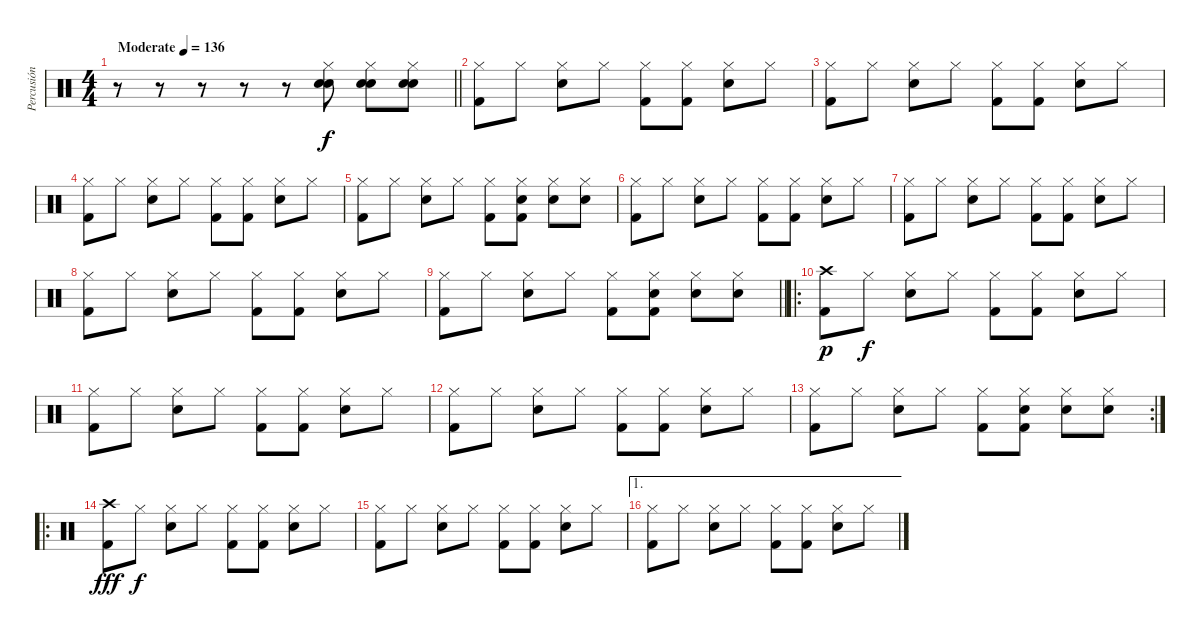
\track ("Percusión" "Percusión") {instrument percussion}
\staff {score}
\articulation defaults
\ts (4 4)
\tempo (136 "Moderate")
\clef neutral
\barLineRight lightlight
\ks c
r.8{dy f} r.8 r.8 r.8 r.8 ("Hi-Hat (closed)" "Electric Snare (hit)" "Snare (hit) 2").8 ("Hi-Hat (closed)" "Electric Snare (hit)" "Snare (hit) 2").8 ("Hi-Hat (closed)" "Electric Snare (hit)" "Snare (hit) 2").8 |
("Hi-Hat (closed)" "Kick (hit) 2").8 "Hi-Hat (closed)".8 ("Hi-Hat (closed)" "Snare (hit) 2").8 "Hi-Hat (closed)".8 ("Hi-Hat (closed)" "Kick (hit) 2").8 ("Hi-Hat (closed)" "Kick (hit) 2").8 ("Hi-Hat (closed)" "Snare (hit) 2").8 "Hi-Hat (closed)".8 |
("Hi-Hat (closed)" "Kick (hit) 2").8 "Hi-Hat (closed)".8 ("Hi-Hat (closed)" "Snare (hit) 2").8 "Hi-Hat (closed)".8 ("Hi-Hat (closed)" "Kick (hit) 2").8 ("Hi-Hat (closed)" "Kick (hit) 2").8 ("Hi-Hat (closed)" "Snare (hit) 2").8 "Hi-Hat (closed)".8 |
("Hi-Hat (closed)" "Kick (hit) 2").8 "Hi-Hat (closed)".8 ("Hi-Hat (closed)" "Snare (hit) 2").8 "Hi-Hat (closed)".8 ("Hi-Hat (closed)" "Kick (hit) 2").8 ("Hi-Hat (closed)" "Kick (hit) 2").8 ("Hi-Hat (closed)" "Snare (hit) 2").8 "Hi-Hat (closed)".8 |
("Hi-Hat (closed)" "Kick (hit) 2").8 "Hi-Hat (closed)".8 ("Hi-Hat (closed)" "Snare (hit) 2").8 "Hi-Hat (closed)".8 ("Hi-Hat (closed)" "Kick (hit) 2").8 ("Hi-Hat (closed)" "Snare (hit) 2" "Kick (hit) 2").8 ("Hi-Hat (closed)" "Snare (hit) 2").8 ("Hi-Hat (closed)" "Snare (hit) 2").8 |
("Hi-Hat (closed)" "Kick (hit) 2").8 "Hi-Hat (closed)".8 ("Hi-Hat (closed)" "Snare (hit) 2").8 "Hi-Hat (closed)".8 ("Hi-Hat (closed)" "Kick (hit) 2").8 ("Hi-Hat (closed)" "Kick (hit) 2").8 ("Hi-Hat (closed)" "Snare (hit) 2").8 "Hi-Hat (closed)".8 |
("Hi-Hat (closed)" "Kick (hit) 2").8 "Hi-Hat (closed)".8 ("Hi-Hat (closed)" "Snare (hit) 2").8 "Hi-Hat (closed)".8 ("Hi-Hat (closed)" "Kick (hit) 2").8 ("Hi-Hat (closed)" "Kick (hit) 2").8 ("Hi-Hat (closed)" "Snare (hit) 2").8 "Hi-Hat (closed)".8 |
("Hi-Hat (closed)" "Kick (hit) 2").8 "Hi-Hat (closed)".8 ("Hi-Hat (closed)" "Snare (hit) 2").8 "Hi-Hat (closed)".8 ("Hi-Hat (closed)" "Kick (hit) 2").8 ("Hi-Hat (closed)" "Kick (hit) 2").8 ("Hi-Hat (closed)" "Snare (hit) 2").8 "Hi-Hat (closed)".8 |
\barLineRight lightlight
("Hi-Hat (closed)" "Kick (hit) 2").8 "Hi-Hat (closed)".8 ("Hi-Hat (closed)" "Snare (hit) 2").8 "Hi-Hat (closed)".8 ("Hi-Hat (closed)" "Kick (hit) 2").8 ("Hi-Hat (closed)" "Snare (hit) 2" "Kick (hit) 2").8 ("Hi-Hat (closed)" "Snare (hit) 2").8 ("Hi-Hat (closed)" "Snare (hit) 2").8 |
\ro
("Crash high (hit)" "Kick (hit) 2").8{dy p} "Hi-Hat (closed)".8{dy f} ("Hi-Hat (closed)" "Snare (hit) 2").8 "Hi-Hat (closed)".8 ("Hi-Hat (closed)" "Kick (hit) 2").8 ("Hi-Hat (closed)" "Kick (hit) 2").8 ("Hi-Hat (closed)" "Snare (hit) 2").8 "Hi-Hat (closed)".8 |
("Hi-Hat (closed)" "Kick (hit) 2").8 "Hi-Hat (closed)".8 ("Hi-Hat (closed)" "Snare (hit) 2").8 "Hi-Hat (closed)".8 ("Hi-Hat (closed)" "Kick (hit) 2").8 ("Hi-Hat (closed)" "Kick (hit) 2").8 ("Hi-Hat (closed)" "Snare (hit) 2").8 "Hi-Hat (closed)".8 |
("Hi-Hat (closed)" "Kick (hit) 2").8 "Hi-Hat (closed)".8 ("Hi-Hat (closed)" "Snare (hit) 2").8 "Hi-Hat (closed)".8 ("Hi-Hat (closed)" "Kick (hit) 2").8 ("Hi-Hat (closed)" "Kick (hit) 2").8 ("Hi-Hat (closed)" "Snare (hit) 2").8 "Hi-Hat (closed)".8 |
\rc 2
("Hi-Hat (closed)" "Kick (hit) 2").8 "Hi-Hat (closed)".8 ("Hi-Hat (closed)" "Snare (hit) 2").8 "Hi-Hat (closed)".8 ("Hi-Hat (closed)" "Kick (hit) 2").8 ("Hi-Hat (closed)" "Snare (hit) 2" "Kick (hit) 2").8 ("Hi-Hat (closed)" "Snare (hit) 2").8 ("Hi-Hat (closed)" "Snare (hit) 2").8 |
\ro
("Crash high (hit)" "Kick (hit) 2").8{dy fff} "Hi-Hat (closed)".8{dy f} ("Hi-Hat (closed)" "Snare (hit) 2").8 "Hi-Hat (closed)".8 ("Hi-Hat (closed)" "Kick (hit) 2").8 ("Hi-Hat (closed)" "Kick (hit) 2").8 ("Hi-Hat (closed)" "Snare (hit) 2").8 "Hi-Hat (closed)".8 |
("Hi-Hat (closed)" "Kick (hit) 2").8 "Hi-Hat (closed)".8 ("Hi-Hat (closed)" "Snare (hit) 2").8 "Hi-Hat (closed)".8 ("Hi-Hat (closed)" "Kick (hit) 2").8 ("Hi-Hat (closed)" "Kick (hit) 2").8 ("Hi-Hat (closed)" "Snare (hit) 2").8 "Hi-Hat (closed)".8 |
\ae 1
("Hi-Hat (closed)" "Kick (hit) 2").8 "Hi-Hat (closed)".8 ("Hi-Hat (closed)" "Snare (hit) 2").8 "Hi-Hat (closed)".8 ("Hi-Hat (closed)" "Kick (hit) 2").8 ("Hi-Hat (closed)" "Kick (hit) 2").8 ("Hi-Hat (closed)" "Snare (hit) 2").8 "Hi-Hat (closed)".8
